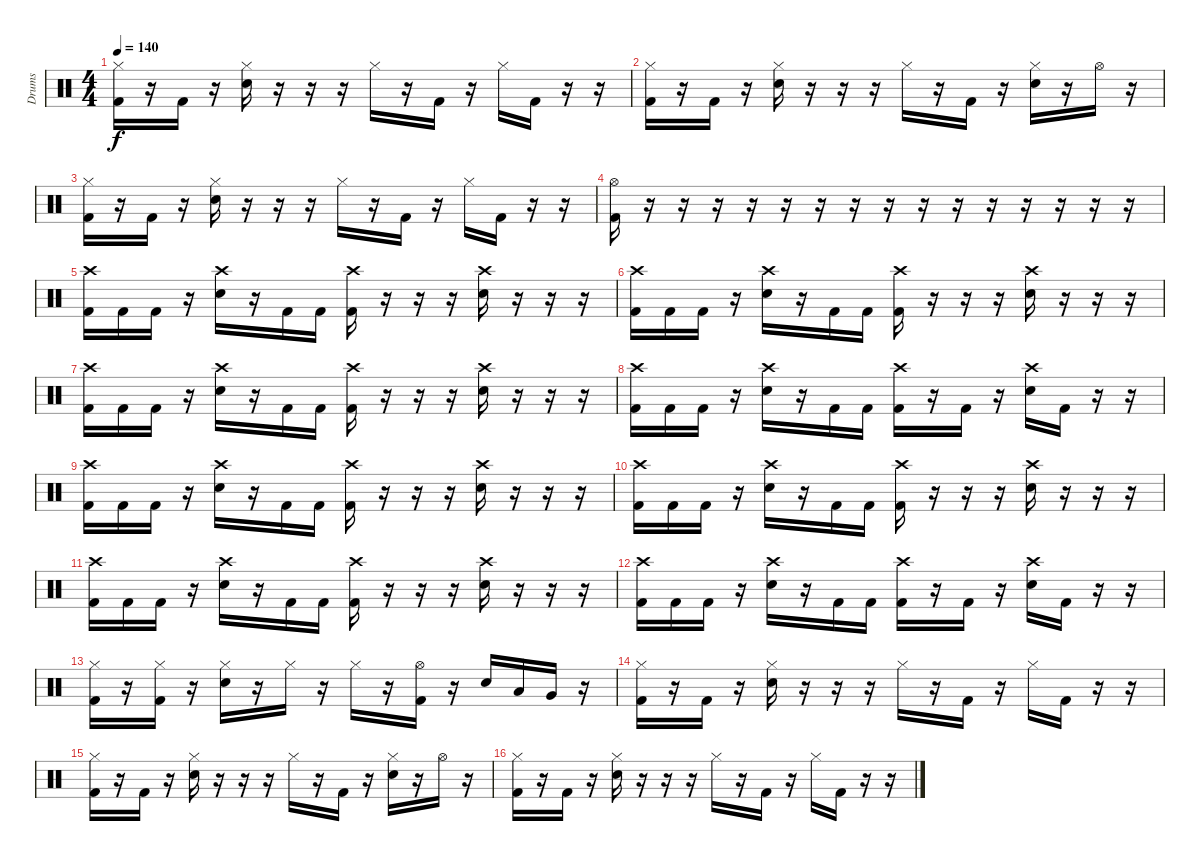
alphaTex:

\track ("Drums" "Drums") {instrument percussion}
\staff {score}
\articulation defaults
\ts (4 4)
\tempo 140
\clef neutral
\ks c
("Hi-Hat (closed)" "Kick (hit) 2").16{dy f} r.16 "Kick (hit) 2".16 r.16 ("Hi-Hat (closed)" "Electric Snare (hit)").16 r.16 r.16 r.16 "Hi-Hat (closed)".16 r.16 "Kick (hit) 2".16 r.16 "Hi-Hat (closed)".16 "Kick (hit) 2".16 r.16 r.16 |
("Hi-Hat (closed)" "Kick (hit) 2").16 r.16 "Kick (hit) 2".16 r.16 ("Hi-Hat (closed)" "Electric Snare (hit)").16 r.16 r.16 r.16 "Hi-Hat (closed)".16 r.16 "Kick (hit) 2".16 r.16 ("Hi-Hat (closed)" "Electric Snare (hit)").16 r.16 "Hi-Hat (open)".16 r.16 |
("Hi-Hat (closed)" "Kick (hit) 2").16 r.16 "Kick (hit) 2".16 r.16 ("Hi-Hat (closed)" "Electric Snare (hit)").16 r.16 r.16 r.16 "Hi-Hat (closed)".16 r.16 "Kick (hit) 2".16 r.16 "Hi-Hat (closed)".16 "Kick (hit) 2".16 r.16 r.16 |
("Hi-Hat (open)" "Kick (hit) 2").16 r.16 r.16 r.16 r.16 r.16 r.16 r.16 r.16 r.16 r.16 r.16 r.16 r.16 r.16 r.16 |
("Crash high (hit)" "Kick (hit) 2").16 "Kick (hit) 2".16 "Kick (hit) 2".16 r.16 ("Crash high (hit)" "Electric Snare (hit)").16 r.16 "Kick (hit) 2".16 "Kick (hit) 2".16 ("Crash high (hit)" "Kick (hit) 2").16 r.16 r.16 r.16 ("Crash high (hit)" "Electric Snare (hit)").16 r.16 r.16 r.16 |
("Crash high (hit)" "Kick (hit) 2").16 "Kick (hit) 2".16 "Kick (hit) 2".16 r.16 ("Crash high (hit)" "Electric Snare (hit)").16 r.16 "Kick (hit) 2".16 "Kick (hit) 2".16 ("Crash high (hit)" "Kick (hit) 2").16 r.16 r.16 r.16 ("Crash high (hit)" "Electric Snare (hit)").16 r.16 r.16 r.16 |
("Crash high (hit)" "Kick (hit) 2").16 "Kick (hit) 2".16 "Kick (hit) 2".16 r.16 ("Crash high (hit)" "Electric Snare (hit)").16 r.16 "Kick (hit) 2".16 "Kick (hit) 2".16 ("Crash high (hit)" "Kick (hit) 2").16 r.16 r.16 r.16 ("Crash high (hit)" "Electric Snare (hit)").16 r.16 r.16 r.16 |
("Crash high (hit)" "Kick (hit) 2").16 "Kick (hit) 2".16 "Kick (hit) 2".16 r.16 ("Crash high (hit)" "Electric Snare (hit)").16 r.16 "Kick (hit) 2".16 "Kick (hit) 2".16 ("Crash high (hit)" "Kick (hit) 2").16 r.16 "Kick (hit) 2".16 r.16 ("Crash high (hit)" "Electric Snare (hit)").16 "Kick (hit) 2".16 r.16 r.16 |
("Crash high (hit)" "Kick (hit) 2").16 "Kick (hit) 2".16 "Kick (hit) 2".16 r.16 ("Crash high (hit)" "Electric Snare (hit)").16 r.16 "Kick (hit) 2".16 "Kick (hit) 2".16 ("Crash high (hit)" "Kick (hit) 2").16 r.16 r.16 r.16 ("Crash high (hit)" "Electric Snare (hit)").16 r.16 r.16 r.16 |
("Crash high (hit)" "Kick (hit) 2").16 "Kick (hit) 2".16 "Kick (hit) 2".16 r.16 ("Crash high (hit)" "Electric Snare (hit)").16 r.16 "Kick (hit) 2".16 "Kick (hit) 2".16 ("Crash high (hit)" "Kick (hit) 2").16 r.16 r.16 r.16 ("Crash high (hit)" "Electric Snare (hit)").16 r.16 r.16 r.16 |
("Crash high (hit)" "Kick (hit) 2").16 "Kick (hit) 2".16 "Kick (hit) 2".16 r.16 ("Crash high (hit)" "Electric Snare (hit)").16 r.16 "Kick (hit) 2".16 "Kick (hit) 2".16 ("Crash high (hit)" "Kick (hit) 2").16 r.16 r.16 r.16 ("Crash high (hit)" "Electric Snare (hit)").16 r.16 r.16 r.16 |
("Crash high (hit)" "Kick (hit) 2").16 "Kick (hit) 2".16 "Kick (hit) 2".16 r.16 ("Crash high (hit)" "Electric Snare (hit)").16 r.16 "Kick (hit) 2".16 "Kick (hit) 2".16 ("Crash high (hit)" "Kick (hit) 2").16 r.16 "Kick (hit) 2".16 r.16 ("Crash high (hit)" "Electric Snare (hit)").16 "Kick (hit) 2".16 r.16 r.16 |
("Hi-Hat (closed)" "Kick (hit) 2").16 r.16 ("Hi-Hat (closed)" "Kick (hit) 2").16 r.16 ("Hi-Hat (closed)" "Electric Snare (hit)").16 r.16 "Hi-Hat (closed)".16 r.16 "Hi-Hat (closed)".16 r.16 ("Hi-Hat (open)" "Kick (hit) 2").16 r.16 "Electric Snare (hit)".16 "Low Tom (hit)".16 "Very Low Tom (hit)".16 r.16 |
("Hi-Hat (closed)" "Kick (hit) 2").16 r.16 "Kick (hit) 2".16 r.16 ("Hi-Hat (closed)" "Electric Snare (hit)").16 r.16 r.16 r.16 "Hi-Hat (closed)".16 r.16 "Kick (hit) 2".16 r.16 "Hi-Hat (closed)".16 "Kick (hit) 2".16 r.16 r.16 |
("Hi-Hat (closed)" "Kick (hit) 2").16 r.16 "Kick (hit) 2".16 r.16 ("Hi-Hat (closed)" "Electric Snare (hit)").16 r.16 r.16 r.16 "Hi-Hat (closed)".16 r.16 "Kick (hit) 2".16 r.16 ("Hi-Hat (closed)" "Electric Snare (hit)").16 r.16 "Hi-Hat (open)".16 r.16 |
("Hi-Hat (closed)" "Kick (hit) 2").16 r.16 "Kick (hit) 2".16 r.16 ("Hi-Hat (closed)" "Electric Snare (hit)").16 r.16 r.16 r.16 "Hi-Hat (closed)".16 r.16 "Kick (hit) 2".16 r.16 "Hi-Hat (closed)".16 "Kick (hit) 2".16 r.16 r.16
